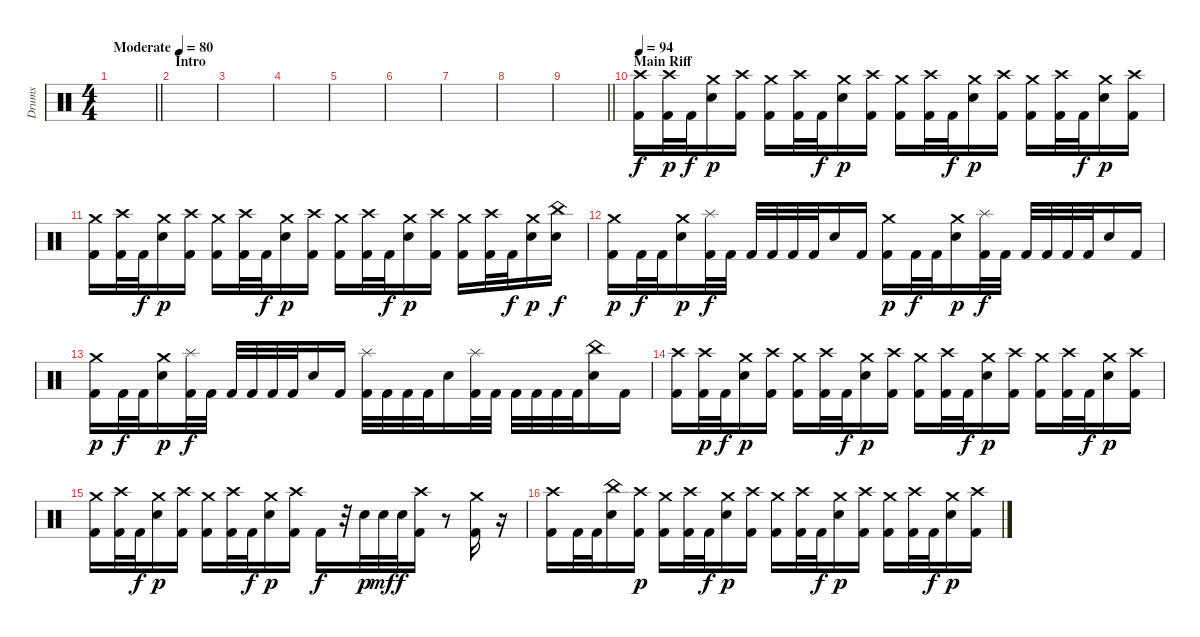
\track ("Drums" "Drums") {instrument percussion}
\staff {score}
\articulation defaults
\ts (4 4)
\tempo (80 "Moderate")
\clef neutral
\barLineRight lightlight
\ks c
|
\section ("" "Intro")
|
|
|
|
|
|
|
\barLineRight lightlight
|
\section ("" "Main Riff")
\tempo 94
("Kick (hit) 2" "Crash high (hit)").16 ("Kick (hit) 2" "Crash high (hit)").32{dy p} "Kick (hit) 2".32{dy f} ("Snare (hit) 2" "Crash medium (hit)").16{dy p} ("Kick (hit) 2" "Crash high (hit)").16 ("Kick (hit) 2" "Crash medium (hit)").16 ("Kick (hit) 2" "Crash high (hit)").32 "Kick (hit) 2".32{dy f} ("Snare (hit) 2" "Crash medium (hit)").16{dy p} ("Kick (hit) 2" "Crash high (hit)").16 ("Kick (hit) 2" "Crash medium (hit)").16 ("Kick (hit) 2" "Crash high (hit)").32 "Kick (hit) 2".32{dy f} ("Snare (hit) 2" "Crash medium (hit)").16{dy p} ("Kick (hit) 2" "Crash high (hit)").16 ("Kick (hit) 2" "Crash medium (hit)").16 ("Kick (hit) 2" "Crash high (hit)").32 "Kick (hit) 2".32{dy f} ("Snare (hit) 2" "Crash medium (hit)").16{dy p} ("Kick (hit) 2" "Crash high (hit)").16 |
("Kick (hit) 2" "Crash medium (hit)").16 ("Kick (hit) 2" "Crash high (hit)").32 "Kick (hit) 2".32{dy f} ("Snare (hit) 2" "Crash medium (hit)").16{dy p} ("Kick (hit) 2" "Crash high (hit)").16 ("Kick (hit) 2" "Crash medium (hit)").16 ("Kick (hit) 2" "Crash high (hit)").32 "Kick (hit) 2".32{dy f} ("Snare (hit) 2" "Crash medium (hit)").16{dy p} ("Kick (hit) 2" "Crash high (hit)").16 ("Kick (hit) 2" "Crash medium (hit)").16 ("Kick (hit) 2" "Crash high (hit)").32 "Kick (hit) 2".32{dy f} ("Snare (hit) 2" "Crash medium (hit)").16{dy p} ("Kick (hit) 2" "Crash high (hit)").16 ("Kick (hit) 2" "Crash medium (hit)").16 ("Kick (hit) 2" "Crash high (hit)").32 "Kick (hit) 2".32{dy f} ("Snare (hit) 2" "Crash medium (hit)").16{dy p} ("China (hit)" "Snare (hit) 2").16{dy f} |
("Kick (hit) 2" "Crash medium (hit)").16{dy p} "Kick (hit) 2".32{dy f} "Kick (hit) 2".32 ("Snare (hit) 2" "Crash medium (hit)").16{dy p} ("Kick (hit) 2" "Splash (hit)").32{dy f} "Kick (hit) 2".32 "Kick (hit) 2".32 "Kick (hit) 2".32 "Kick (hit) 2".32 "Kick (hit) 2".32 "Snare (hit) 2".16 "Kick (hit) 2".16 ("Kick (hit) 2" "Crash medium (hit)").16{dy p} "Kick (hit) 2".32{dy f} "Kick (hit) 2".32 ("Snare (hit) 2" "Crash medium (hit)").16{dy p} ("Kick (hit) 2" "Splash (hit)").32{dy f} "Kick (hit) 2".32 "Kick (hit) 2".32 "Kick (hit) 2".32 "Kick (hit) 2".32 "Kick (hit) 2".32 "Snare (hit) 2".16 "Kick (hit) 2".16 |
("Kick (hit) 2" "Crash medium (hit)").16{dy p} "Kick (hit) 2".32{dy f} "Kick (hit) 2".32 ("Snare (hit) 2" "Crash medium (hit)").16{dy p} ("Kick (hit) 2" "Splash (hit)").32{dy f} "Kick (hit) 2".32 "Kick (hit) 2".32 "Kick (hit) 2".32 "Kick (hit) 2".32 "Kick (hit) 2".32 "Snare (hit) 2".16 "Kick (hit) 2".16 ("Kick (hit) 2" "Splash (hit)").32 "Kick (hit) 2".32 "Kick (hit) 2".32 "Kick (hit) 2".32 "Snare (hit) 2".16 ("Kick (hit) 2" "Splash (hit)").32 "Kick (hit) 2".32 "Kick (hit) 2".32 "Kick (hit) 2".32 "Kick (hit) 2".32 "Kick (hit) 2".32 ("Snare (hit) 2" "China (hit)").16 "Kick (hit) 2".16 |
("Kick (hit) 2" "Crash high (hit)").16 ("Kick (hit) 2" "Crash high (hit)").32{dy p} "Kick (hit) 2".32{dy f} ("Snare (hit) 2" "Crash medium (hit)").16{dy p} ("Kick (hit) 2" "Crash high (hit)").16 ("Kick (hit) 2" "Crash medium (hit)").16 ("Kick (hit) 2" "Crash high (hit)").32 "Kick (hit) 2".32{dy f} ("Snare (hit) 2" "Crash medium (hit)").16{dy p} ("Kick (hit) 2" "Crash high (hit)").16 ("Kick (hit) 2" "Crash medium (hit)").16 ("Kick (hit) 2" "Crash high (hit)").32 "Kick (hit) 2".32{dy f} ("Snare (hit) 2" "Crash medium (hit)").16{dy p} ("Kick (hit) 2" "Crash high (hit)").16 ("Kick (hit) 2" "Crash medium (hit)").16 ("Kick (hit) 2" "Crash high (hit)").32 "Kick (hit) 2".32{dy f} ("Snare (hit) 2" "Crash medium (hit)").16{dy p} ("Kick (hit) 2" "Crash high (hit)").16 |
("Kick (hit) 2" "Crash medium (hit)").16 ("Kick (hit) 2" "Crash high (hit)").32 "Kick (hit) 2".32{dy f} ("Snare (hit) 2" "Crash medium (hit)").16{dy p} ("Kick (hit) 2" "Crash high (hit)").16 ("Kick (hit) 2" "Crash medium (hit)").16 ("Kick (hit) 2" "Crash high (hit)").32 "Kick (hit) 2".32{dy f} ("Snare (hit) 2" "Crash medium (hit)").16{dy p} ("Kick (hit) 2" "Crash high (hit)").16 "Kick (hit) 2".16{dy f} r.32 "Snare (hit) 2".32{dy p} "Snare (hit) 2".32{dy mf} "Snare (hit) 2".32{dy f} ("Kick (hit) 2" "Crash high (hit)").16 r.8 ("Crash medium (hit)" "Kick (hit) 2").16 r.16 |
("Kick (hit) 2" "Crash high (hit)").16 "Kick (hit) 2".32 "Kick (hit) 2".32 ("Snare (hit) 2" "China (hit)").16 ("Kick (hit) 2" "Crash high (hit)").16{dy p} ("Kick (hit) 2" "Crash medium (hit)").16 ("Kick (hit) 2" "Crash high (hit)").32 "Kick (hit) 2".32{dy f} ("Snare (hit) 2" "Crash medium (hit)").16{dy p} ("Kick (hit) 2" "Crash high (hit)").16 ("Kick (hit) 2" "Crash medium (hit)").16 ("Kick (hit) 2" "Crash high (hit)").32 "Kick (hit) 2".32{dy f} ("Snare (hit) 2" "Crash medium (hit)").16{dy p} ("Kick (hit) 2" "Crash high (hit)").16 ("Kick (hit) 2" "Crash medium (hit)").16 ("Kick (hit) 2" "Crash high (hit)").32 "Kick (hit) 2".32{dy f} ("Snare (hit) 2" "Crash medium (hit)").16{dy p} ("Kick (hit) 2" "Crash high (hit)").16
